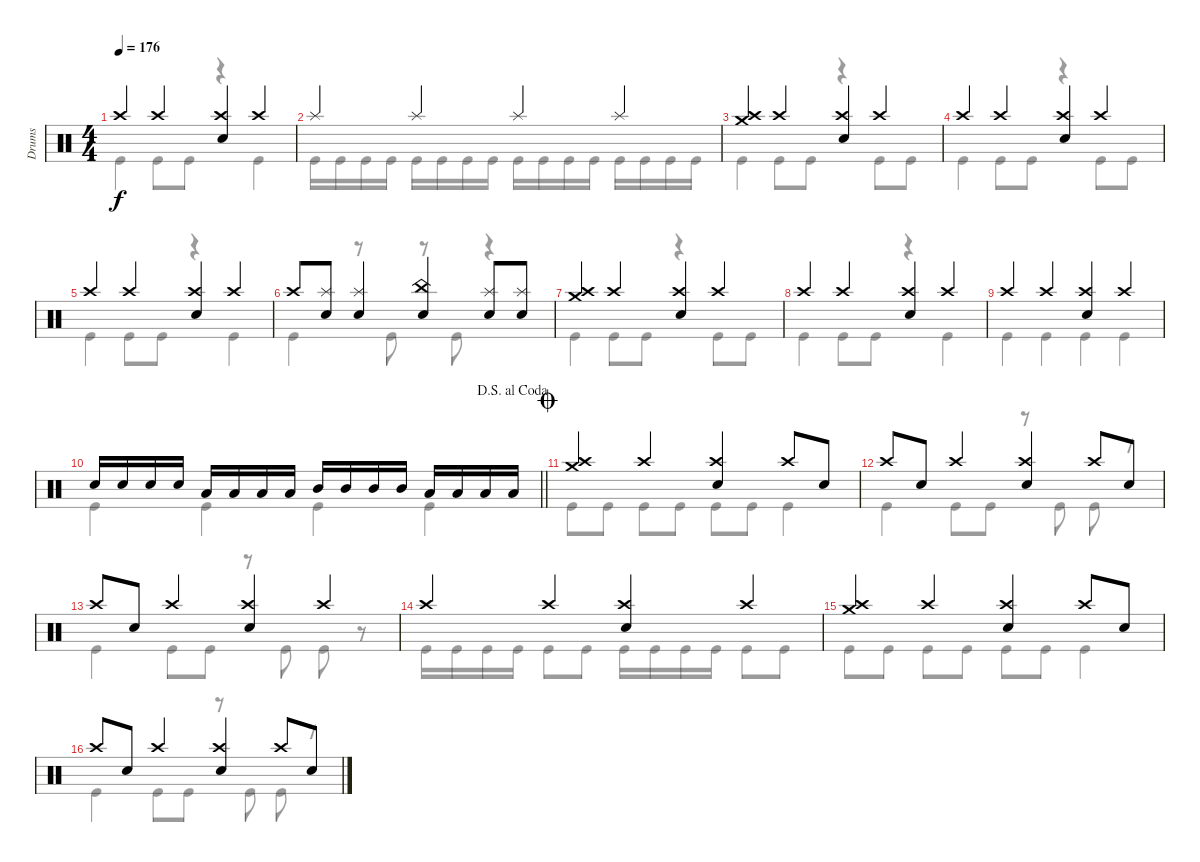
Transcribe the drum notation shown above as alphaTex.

\track ("Drums" "Drums") {instrument percussion}
\staff {score}
\articulation defaults
\voice
\ts (4 4)
\tempo 176
\clef neutral
\ks c "Crash high (hit)".4{dy f} "Crash high (hit)".4
("Crash high (hit)" "Snare (hit) 2").4 "Crash high (hit)".4 |
"Splash (hit)".4 "Splash (hit)".4 "Splash (hit)".4 "Splash (hit)".4 |
("Crash medium (hit)" "Crash high (hit)").4 "Crash high (hit)".4 ("Crash high (hit)" "Snare (hit) 2").4 "Crash high (hit)".4 |
"Crash high (hit)".4 "Crash high (hit)".4 ("Crash high (hit)" "Snare (hit) 2").4 "Crash high (hit)".4 |
"Crash high (hit)".4 "Crash high (hit)".4 ("Crash high (hit)" "Snare (hit) 2").4 "Crash high (hit)".4 |
"Crash high (hit)".8 ("Snare (hit) 2" "Splash (hit)").8 ("Snare (hit) 2" "Splash (hit)").4 ("Snare (hit) 2" "China (hit)").4 ("Snare (hit) 2" "Splash (hit)").8 ("Snare (hit) 2" "Splash (hit)").8 |
("Crash medium (hit)" "Crash high (hit)").4 "Crash high (hit)".4 ("Crash high (hit)" "Snare (hit) 2").4 "Crash high (hit)".4 |
"Crash high (hit)".4 "Crash high (hit)".4 ("Crash high (hit)" "Snare (hit) 2").4 "Crash high (hit)".4 |
"Crash high (hit)".4 "Crash high (hit)".4 ("Crash high (hit)" "Snare (hit) 2").4 "Crash high (hit)".4 |
\jump dalsegnoalcoda
\barLineRight lightlight "Snare (hit) 2".16 "Snare (hit) 2".16 "Snare (hit) 2".16 "Snare (hit) 2".16 "Low Tom (hit)".16 "Low Tom (hit)".16 "Low Tom (hit)".16 "Low Tom (hit)".16 "Mid Tom (hit)".16 "Mid Tom (hit)".16 "Mid Tom (hit)".16 "Mid Tom (hit)".16 "Low Tom (hit)".16 "Low Tom (hit)".16 "Low Tom (hit)".16 "Low Tom (hit)".16
|
\jump coda
("Crash medium (hit)" "Crash high (hit)").4 "Crash high (hit)".4 ("Crash high (hit)" "Snare (hit) 2").4 "Crash high (hit)".8 "Snare (hit) 2".8 |
"Crash high (hit)".8 "Snare (hit) 2".8 "Crash high (hit)".4 ("Crash high (hit)" "Snare (hit) 2").4 "Crash high (hit)".8 "Snare (hit) 2".8 |
"Crash high (hit)".8 "Snare (hit) 2".8 "Crash high (hit)".4 ("Crash high (hit)" "Snare (hit) 2").4 "Crash high (hit)".4 |
"Crash high (hit)".4 "Crash high (hit)".4 ("Crash high (hit)" "Snare (hit) 2").4 "Crash high (hit)".4 |
("Crash medium (hit)" "Crash high (hit)").4 "Crash high (hit)".4 ("Crash high (hit)" "Snare (hit) 2").4 "Crash high (hit)".8 "Snare (hit) 2".8 |
"Crash high (hit)".8 "Snare (hit) 2".8 "Crash high (hit)".4 ("Crash high (hit)" "Snare (hit) 2").4 "Crash high (hit)".8 "Snare (hit) 2".8
\voice
\clef neutral
\ottava regular
\simile none
\ks c "Kick (hit)".4{dy f} "Kick (hit)".8 "Kick (hit)".8
r.4 "Kick (hit)".4 |
"Kick (hit)".16 "Kick (hit)".16 "Kick (hit)".16 "Kick (hit)".16 "Kick (hit)".16 "Kick (hit)".16 "Kick (hit)".16 "Kick (hit)".16 "Kick (hit)".16 "Kick (hit)".16 "Kick (hit)".16 "Kick (hit)".16 "Kick (hit)".16 "Kick (hit)".16 "Kick (hit)".16 "Kick (hit)".16 |
"Kick (hit)".4 "Kick (hit)".8 "Kick (hit)".8 r.4 "Kick (hit)".8 "Kick (hit)".8 |
"Kick (hit)".4 "Kick (hit)".8 "Kick (hit)".8 r.4 "Kick (hit)".8 "Kick (hit)".8 |
"Kick (hit)".4 "Kick (hit)".8 "Kick (hit)".8 r.4 "Kick (hit)".4 |
"Kick (hit)".4 r.8 "Kick (hit)".8 r.8 "Kick (hit)".8 r.4 |
"Kick (hit)".4 "Kick (hit)".8 "Kick (hit)".8 r.4 "Kick (hit)".8 "Kick (hit)".8 |
"Kick (hit)".4 "Kick (hit)".8 "Kick (hit)".8 r.4 "Kick (hit)".4 |
"Kick (hit)".4 "Kick (hit)".4 "Kick (hit)".4 "Kick (hit)".4 |
\barLineRight lightlight "Kick (hit)".4 "Kick (hit)".4 "Kick (hit)".4 "Kick (hit)".4
|
"Kick (hit)".8 "Kick (hit)".8 "Kick (hit)".8 "Kick (hit)".8 "Kick (hit)".8 "Kick (hit)".8 "Kick (hit)".4 |
"Kick (hit)".4 "Kick (hit)".8 "Kick (hit)".8 r.8 "Kick (hit)".8 "Kick (hit)".8 r.8 |
"Kick (hit)".4 "Kick (hit)".8 "Kick (hit)".8 r.8 "Kick (hit)".8 "Kick (hit)".8 r.8 |
"Kick (hit)".16 "Kick (hit)".16 "Kick (hit)".16 "Kick (hit)".16 "Kick (hit)".8 "Kick (hit)".8 "Kick (hit)".16 "Kick (hit)".16 "Kick (hit)".16 "Kick (hit)".16 "Kick (hit)".8 "Kick (hit)".8 |
"Kick (hit)".8 "Kick (hit)".8 "Kick (hit)".8 "Kick (hit)".8 "Kick (hit)".8 "Kick (hit)".8 "Kick (hit)".4 |
"Kick (hit)".4 "Kick (hit)".8 "Kick (hit)".8 r.8 "Kick (hit)".8 "Kick (hit)".8 r.8
